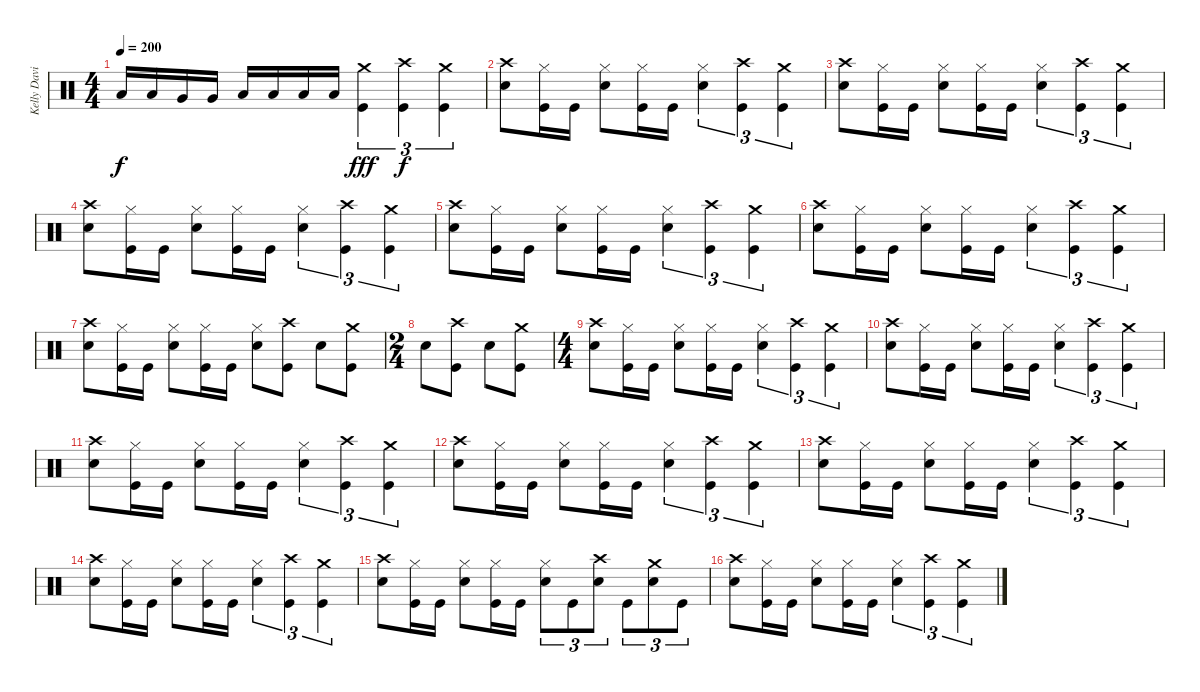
\track ("Kelly David Smith" "Kelly Davi") {instrument percussion}
\staff {score}
\articulation defaults
\ts (4 4)
\tempo 200
\clef neutral
\ks c "Low Tom (hit)".16{dy f} "Low Tom (hit)".16 "Very Low Tom (hit)".16 "Very Low Tom (hit)".16 "Low Floor Tom (hit)".16 "Low Floor Tom (hit)".16 "Low Floor Tom (hit)".16 "Low Floor Tom (hit)".16
("Crash medium (hit)" "Kick (hit)").4{tu (3 2) dy fff} ("Crash high (hit)" "Kick (hit)").4{tu (3 2) dy f} ("Crash medium (hit)" "Kick (hit)").4{tu (3 2)} |
("Crash high (hit)" "Snare (hit) 2").8 ("Hi-Hat (closed)" "Kick (hit)").16 "Kick (hit)".16 ("Hi-Hat (closed)" "Snare (hit) 2").8 ("Hi-Hat (closed)" "Kick (hit)").16 "Kick (hit)".16 ("Hi-Hat (closed)" "Snare (hit) 2").4{tu (3 2)} ("Crash high (hit)" "Kick (hit)").4{tu (3 2)} ("Crash medium (hit)" "Kick (hit)").4{tu (3 2)} |
("Crash high (hit)" "Snare (hit) 2").8 ("Hi-Hat (closed)" "Kick (hit)").16 "Kick (hit)".16 ("Hi-Hat (closed)" "Snare (hit) 2").8 ("Hi-Hat (closed)" "Kick (hit)").16 "Kick (hit)".16 ("Hi-Hat (closed)" "Snare (hit) 2").4{tu (3 2)} ("Crash high (hit)" "Kick (hit)").4{tu (3 2)} ("Crash medium (hit)" "Kick (hit)").4{tu (3 2)} |
("Crash high (hit)" "Snare (hit) 2").8 ("Hi-Hat (closed)" "Kick (hit)").16 "Kick (hit)".16 ("Hi-Hat (closed)" "Snare (hit) 2").8 ("Hi-Hat (closed)" "Kick (hit)").16 "Kick (hit)".16 ("Hi-Hat (closed)" "Snare (hit) 2").4{tu (3 2)} ("Crash high (hit)" "Kick (hit)").4{tu (3 2)} ("Crash medium (hit)" "Kick (hit)").4{tu (3 2)} |
("Crash high (hit)" "Snare (hit) 2").8 ("Hi-Hat (closed)" "Kick (hit)").16 "Kick (hit)".16 ("Hi-Hat (closed)" "Snare (hit) 2").8 ("Hi-Hat (closed)" "Kick (hit)").16 "Kick (hit)".16 ("Hi-Hat (closed)" "Snare (hit) 2").4{tu (3 2)} ("Crash high (hit)" "Kick (hit)").4{tu (3 2)} ("Crash medium (hit)" "Kick (hit)").4{tu (3 2)} |
("Crash high (hit)" "Snare (hit) 2").8 ("Hi-Hat (closed)" "Kick (hit)").16 "Kick (hit)".16 ("Hi-Hat (closed)" "Snare (hit) 2").8 ("Hi-Hat (closed)" "Kick (hit)").16 "Kick (hit)".16 ("Hi-Hat (closed)" "Snare (hit) 2").4{tu (3 2)} ("Crash high (hit)" "Kick (hit)").4{tu (3 2)} ("Crash medium (hit)" "Kick (hit)").4{tu (3 2)} |
("Crash high (hit)" "Snare (hit) 2").8 ("Hi-Hat (closed)" "Kick (hit)").16 "Kick (hit)".16 ("Hi-Hat (closed)" "Snare (hit) 2").8 ("Hi-Hat (closed)" "Kick (hit)").16 "Kick (hit)".16 ("Hi-Hat (closed)" "Snare (hit) 2").8 ("Crash high (hit)" "Kick (hit)").8 "Snare (hit) 2".8 ("Crash medium (hit)" "Kick (hit)").8 |
\ts (2 4)
"Snare (hit) 2".8 ("Crash high (hit)" "Kick (hit)").8 "Snare (hit) 2".8 ("Crash medium (hit)" "Kick (hit)").8 |
\ts (4 4)
("Crash high (hit)" "Snare (hit) 2").8 ("Hi-Hat (closed)" "Kick (hit)").16 "Kick (hit)".16 ("Hi-Hat (closed)" "Snare (hit) 2").8 ("Hi-Hat (closed)" "Kick (hit)").16 "Kick (hit)".16 ("Hi-Hat (closed)" "Snare (hit) 2").4{tu (3 2)} ("Crash high (hit)" "Kick (hit)").4{tu (3 2)} ("Crash medium (hit)" "Kick (hit)").4{tu (3 2)} |
("Crash high (hit)" "Snare (hit) 2").8 ("Hi-Hat (closed)" "Kick (hit)").16 "Kick (hit)".16 ("Hi-Hat (closed)" "Snare (hit) 2").8 ("Hi-Hat (closed)" "Kick (hit)").16 "Kick (hit)".16 ("Hi-Hat (closed)" "Snare (hit) 2").4{tu (3 2)} ("Crash high (hit)" "Kick (hit)").4{tu (3 2)} ("Crash medium (hit)" "Kick (hit)").4{tu (3 2)} |
("Crash high (hit)" "Snare (hit) 2").8 ("Hi-Hat (closed)" "Kick (hit)").16 "Kick (hit)".16 ("Hi-Hat (closed)" "Snare (hit) 2").8 ("Hi-Hat (closed)" "Kick (hit)").16 "Kick (hit)".16 ("Hi-Hat (closed)" "Snare (hit) 2").4{tu (3 2)} ("Crash high (hit)" "Kick (hit)").4{tu (3 2)} ("Crash medium (hit)" "Kick (hit)").4{tu (3 2)} |
("Crash high (hit)" "Snare (hit) 2").8 ("Hi-Hat (closed)" "Kick (hit)").16 "Kick (hit)".16 ("Hi-Hat (closed)" "Snare (hit) 2").8 ("Hi-Hat (closed)" "Kick (hit)").16 "Kick (hit)".16 ("Hi-Hat (closed)" "Snare (hit) 2").4{tu (3 2)} ("Crash high (hit)" "Kick (hit)").4{tu (3 2)} ("Crash medium (hit)" "Kick (hit)").4{tu (3 2)} |
("Crash high (hit)" "Snare (hit) 2").8 ("Hi-Hat (closed)" "Kick (hit)").16 "Kick (hit)".16 ("Hi-Hat (closed)" "Snare (hit) 2").8 ("Hi-Hat (closed)" "Kick (hit)").16 "Kick (hit)".16 ("Hi-Hat (closed)" "Snare (hit) 2").4{tu (3 2)} ("Crash high (hit)" "Kick (hit)").4{tu (3 2)} ("Crash medium (hit)" "Kick (hit)").4{tu (3 2)} |
("Crash high (hit)" "Snare (hit) 2").8 ("Hi-Hat (closed)" "Kick (hit)").16 "Kick (hit)".16 ("Hi-Hat (closed)" "Snare (hit) 2").8 ("Hi-Hat (closed)" "Kick (hit)").16 "Kick (hit)".16 ("Hi-Hat (closed)" "Snare (hit) 2").4{tu (3 2)} ("Crash high (hit)" "Kick (hit)").4{tu (3 2)} ("Crash medium (hit)" "Kick (hit)").4{tu (3 2)} |
("Crash high (hit)" "Snare (hit) 2").8 ("Hi-Hat (closed)" "Kick (hit)").16 "Kick (hit)".16 ("Hi-Hat (closed)" "Snare (hit) 2").8 ("Hi-Hat (closed)" "Kick (hit)").16 "Kick (hit)".16 ("Hi-Hat (closed)" "Snare (hit) 2").8{tu (3 2)} "Kick (hit)".8{tu (3 2)} ("Crash high (hit)" "Snare (hit) 2").8{tu (3 2)} "Kick (hit)".8{tu (3 2)} ("Crash medium (hit)" "Snare (hit) 2").8{tu (3 2)} "Kick (hit)".8{tu (3 2)} |
("Crash high (hit)" "Snare (hit) 2").8 ("Hi-Hat (closed)" "Kick (hit)").16 "Kick (hit)".16 ("Hi-Hat (closed)" "Snare (hit) 2").8 ("Hi-Hat (closed)" "Kick (hit)").16 "Kick (hit)".16 ("Hi-Hat (closed)" "Snare (hit) 2").4{tu (3 2)} ("Crash high (hit)" "Kick (hit)").4{tu (3 2)} ("Crash medium (hit)" "Kick (hit)").4{tu (3 2)}
